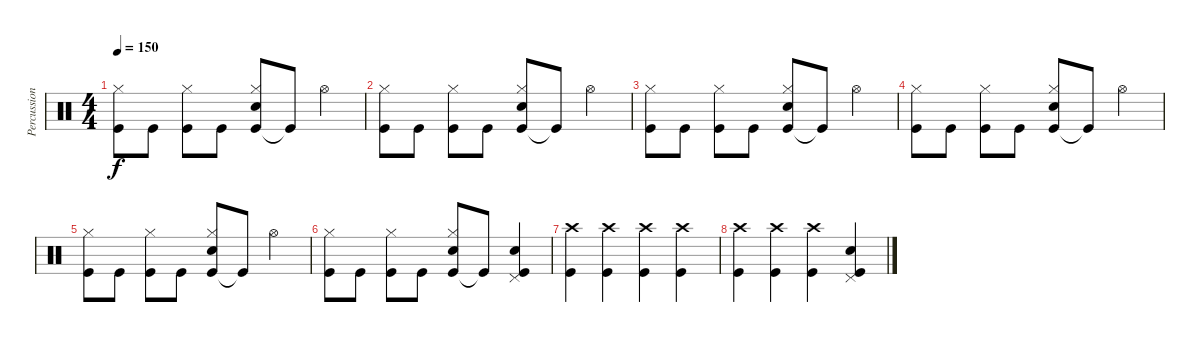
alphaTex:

\track ("Percussion" "Percussion") {instrument percussion}
\staff {score}
\articulation defaults
\ts (4 4)
\tempo 150
\clef neutral
\ks c
("Kick (hit)" "Hi-Hat (closed)").8{dy f} "Kick (hit)".8 ("Kick (hit)" "Hi-Hat (closed)").8 "Kick (hit)".8 ("Kick (hit)" "Hi-Hat (closed)" "Snare (hit) 2").8 "Kick (hit)"{t}.8 "Hi-Hat (open)".4 |
("Kick (hit)" "Hi-Hat (closed)").8 "Kick (hit)".8 ("Kick (hit)" "Hi-Hat (closed)").8 "Kick (hit)".8 ("Kick (hit)" "Hi-Hat (closed)" "Snare (hit) 2").8 "Kick (hit)"{t}.8 "Hi-Hat (open)".4 |
("Kick (hit)" "Hi-Hat (closed)").8 "Kick (hit)".8 ("Kick (hit)" "Hi-Hat (closed)").8 "Kick (hit)".8 ("Kick (hit)" "Hi-Hat (closed)" "Snare (hit) 2").8 "Kick (hit)"{t}.8 "Hi-Hat (open)".4 |
("Kick (hit)" "Hi-Hat (closed)").8 "Kick (hit)".8 ("Kick (hit)" "Hi-Hat (closed)").8 "Kick (hit)".8 ("Kick (hit)" "Hi-Hat (closed)" "Snare (hit) 2").8 "Kick (hit)"{t}.8 "Hi-Hat (open)".4 |
("Kick (hit)" "Hi-Hat (closed)").8 "Kick (hit)".8 ("Kick (hit)" "Hi-Hat (closed)").8 "Kick (hit)".8 ("Kick (hit)" "Hi-Hat (closed)" "Snare (hit) 2").8 "Kick (hit)"{t}.8 "Hi-Hat (open)".4 |
("Kick (hit)" "Hi-Hat (closed)").8 "Kick (hit)".8 ("Kick (hit)" "Hi-Hat (closed)").8 "Kick (hit)".8 ("Kick (hit)" "Hi-Hat (closed)" "Snare (hit) 2").8 "Kick (hit)"{t}.8 ("Kick (hit)" "Pedal Hi-Hat (hit)" "Snare (hit) 2").4 |
("Kick (hit)" "Crash high (hit)").4 ("Kick (hit)" "Crash high (hit)").4 ("Kick (hit)" "Crash high (hit)").4 ("Kick (hit)" "Crash high (hit)").4 |
("Kick (hit)" "Crash high (hit)").4 ("Kick (hit)" "Crash high (hit)").4 ("Kick (hit)" "Crash high (hit)").4 ("Kick (hit)" "Pedal Hi-Hat (hit)" "Snare (hit) 2").4
